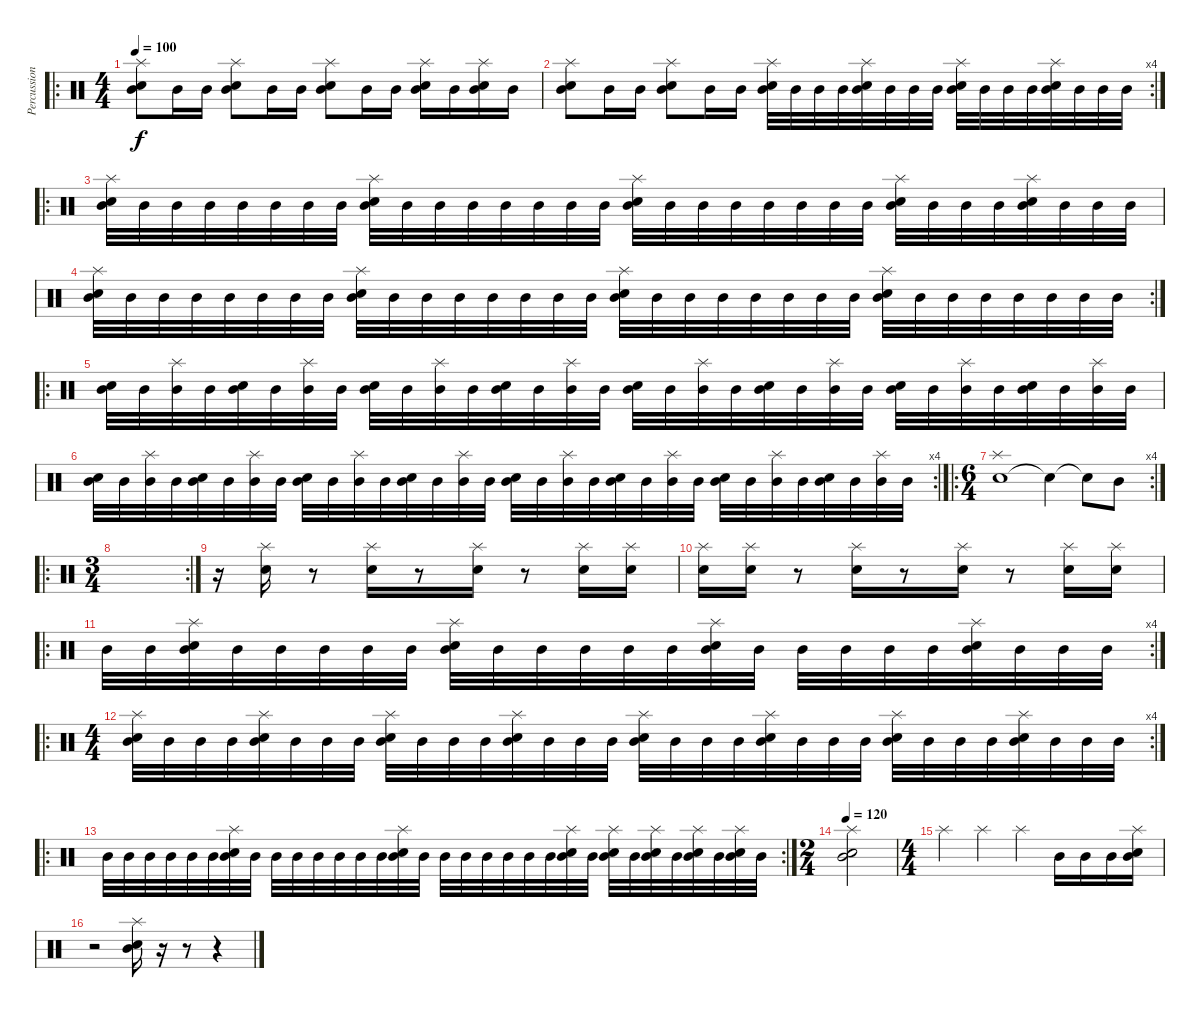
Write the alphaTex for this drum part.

\track ("Percussion" "Percussion") {instrument percussion}
\staff {score}
\articulation defaults
\ro
\ts (4 4)
\tempo 100
\clef neutral
\ks c
("Mid Tom (hit)" "Electric Snare (hit)" "Splash (hit)").8{dy f} "Mid Tom (hit)".16 "Mid Tom (hit)".16 ("Mid Tom (hit)" "Electric Snare (hit)" "Splash (hit)").8 "Mid Tom (hit)".16 "Mid Tom (hit)".16 ("Mid Tom (hit)" "Electric Snare (hit)" "Splash (hit)").8 "Mid Tom (hit)".16 "Mid Tom (hit)".16 ("Mid Tom (hit)" "Electric Snare (hit)" "Splash (hit)").16 "Mid Tom (hit)".16 ("Mid Tom (hit)" "Electric Snare (hit)" "Splash (hit)").16 "Mid Tom (hit)".16 |
\rc 4
("Mid Tom (hit)" "Electric Snare (hit)" "Splash (hit)").8 "Mid Tom (hit)".16 "Mid Tom (hit)".16 ("Mid Tom (hit)" "Electric Snare (hit)" "Splash (hit)").8 "Mid Tom (hit)".16 "Mid Tom (hit)".16 ("Mid Tom (hit)" "Electric Snare (hit)" "Splash (hit)").32 "Mid Tom (hit)".32 "Mid Tom (hit)".32 "Mid Tom (hit)".32 ("Mid Tom (hit)" "Electric Snare (hit)" "Splash (hit)").32 "Mid Tom (hit)".32 "Mid Tom (hit)".32 "Mid Tom (hit)".32 ("Mid Tom (hit)" "Electric Snare (hit)" "Splash (hit)").32 "Mid Tom (hit)".32 "Mid Tom (hit)".32 "Mid Tom (hit)".32 ("Mid Tom (hit)" "Electric Snare (hit)" "Splash (hit)").32 "Mid Tom (hit)".32 "Mid Tom (hit)".32 "Mid Tom (hit)".32 |
\ro
("Mid Tom (hit)" "Electric Snare (hit)" "Splash (hit)").32 "Mid Tom (hit)".32 "Mid Tom (hit)".32 "Mid Tom (hit)".32 "Mid Tom (hit)".32 "Mid Tom (hit)".32 "Mid Tom (hit)".32 "Mid Tom (hit)".32 ("Mid Tom (hit)" "Electric Snare (hit)" "Splash (hit)").32 "Mid Tom (hit)".32 "Mid Tom (hit)".32 "Mid Tom (hit)".32 "Mid Tom (hit)".32 "Mid Tom (hit)".32 "Mid Tom (hit)".32 "Mid Tom (hit)".32 ("Mid Tom (hit)" "Electric Snare (hit)" "Splash (hit)").32 "Mid Tom (hit)".32 "Mid Tom (hit)".32 "Mid Tom (hit)".32 "Mid Tom (hit)".32 "Mid Tom (hit)".32 "Mid Tom (hit)".32 "Mid Tom (hit)".32 ("Mid Tom (hit)" "Electric Snare (hit)" "Splash (hit)").32 "Mid Tom (hit)".32 "Mid Tom (hit)".32 "Mid Tom (hit)".32 ("Mid Tom (hit)" "Electric Snare (hit)" "Splash (hit)").32 "Mid Tom (hit)".32 "Mid Tom (hit)".32 "Mid Tom (hit)".32 |
\rc 2
("Mid Tom (hit)" "Electric Snare (hit)" "Splash (hit)").32 "Mid Tom (hit)".32 "Mid Tom (hit)".32 "Mid Tom (hit)".32 "Mid Tom (hit)".32 "Mid Tom (hit)".32 "Mid Tom (hit)".32 "Mid Tom (hit)".32 ("Mid Tom (hit)" "Electric Snare (hit)" "Splash (hit)").32 "Mid Tom (hit)".32 "Mid Tom (hit)".32 "Mid Tom (hit)".32 "Mid Tom (hit)".32 "Mid Tom (hit)".32 "Mid Tom (hit)".32 "Mid Tom (hit)".32 ("Mid Tom (hit)" "Electric Snare (hit)" "Splash (hit)").32 "Mid Tom (hit)".32 "Mid Tom (hit)".32 "Mid Tom (hit)".32 "Mid Tom (hit)".32 "Mid Tom (hit)".32 "Mid Tom (hit)".32 "Mid Tom (hit)".32 ("Mid Tom (hit)" "Electric Snare (hit)" "Splash (hit)").32 "Mid Tom (hit)".32 "Mid Tom (hit)".32 "Mid Tom (hit)".32 "Mid Tom (hit)".32 "Mid Tom (hit)".32 "Mid Tom (hit)".32 "Mid Tom (hit)".32 |
\ro
("Mid Tom (hit)" "Electric Snare (hit)").32 "Mid Tom (hit)".32 ("Mid Tom (hit)" "Splash (hit)").32 "Mid Tom (hit)".32 ("Mid Tom (hit)" "Electric Snare (hit)").32 "Mid Tom (hit)".32 ("Mid Tom (hit)" "Splash (hit)").32 "Mid Tom (hit)".32 ("Mid Tom (hit)" "Electric Snare (hit)").32 "Mid Tom (hit)".32 ("Mid Tom (hit)" "Splash (hit)").32 "Mid Tom (hit)".32 ("Mid Tom (hit)" "Electric Snare (hit)").32 "Mid Tom (hit)".32 ("Mid Tom (hit)" "Splash (hit)").32 "Mid Tom (hit)".32 ("Mid Tom (hit)" "Electric Snare (hit)").32 "Mid Tom (hit)".32 ("Mid Tom (hit)" "Splash (hit)").32 "Mid Tom (hit)".32 ("Mid Tom (hit)" "Electric Snare (hit)").32 "Mid Tom (hit)".32 ("Mid Tom (hit)" "Splash (hit)").32 "Mid Tom (hit)".32 ("Mid Tom (hit)" "Electric Snare (hit)").32 "Mid Tom (hit)".32 ("Mid Tom (hit)" "Splash (hit)").32 "Mid Tom (hit)".32 ("Mid Tom (hit)" "Electric Snare (hit)").32 "Mid Tom (hit)".32 ("Mid Tom (hit)" "Splash (hit)").32 "Mid Tom (hit)".32 |
\rc 4
("Mid Tom (hit)" "Electric Snare (hit)").32 "Mid Tom (hit)".32 ("Mid Tom (hit)" "Splash (hit)").32 "Mid Tom (hit)".32 ("Mid Tom (hit)" "Electric Snare (hit)").32 "Mid Tom (hit)".32 ("Mid Tom (hit)" "Splash (hit)").32 "Mid Tom (hit)".32 ("Mid Tom (hit)" "Electric Snare (hit)").32 "Mid Tom (hit)".32 ("Mid Tom (hit)" "Splash (hit)").32 "Mid Tom (hit)".32 ("Mid Tom (hit)" "Electric Snare (hit)").32 "Mid Tom (hit)".32 ("Mid Tom (hit)" "Splash (hit)").32 "Mid Tom (hit)".32 ("Mid Tom (hit)" "Electric Snare (hit)").32 "Mid Tom (hit)".32 ("Mid Tom (hit)" "Splash (hit)").32 "Mid Tom (hit)".32 ("Mid Tom (hit)" "Electric Snare (hit)").32 "Mid Tom (hit)".32 ("Mid Tom (hit)" "Splash (hit)").32 "Mid Tom (hit)".32 ("Mid Tom (hit)" "Electric Snare (hit)").32 "Mid Tom (hit)".32 ("Mid Tom (hit)" "Splash (hit)").32 "Mid Tom (hit)".32 ("Mid Tom (hit)" "Electric Snare (hit)").32 "Mid Tom (hit)".32 ("Mid Tom (hit)" "Splash (hit)").32 "Mid Tom (hit)".32 |
\ro
\rc 4
\ts (6 4)
("Electric Snare (hit)" "Splash (hit)").1 "Snare (hit)"{t}.4 "Snare (hit)"{t}.8 "Mid Tom (hit)".8 |
\ro
\rc 2
\ts (3 4)
|
r.16 ("Electric Snare (hit)" "Splash (hit)").16 r.8 ("Electric Snare (hit)" "Splash (hit)").16 r.8 ("Electric Snare (hit)" "Splash (hit)").16 r.8 ("Electric Snare (hit)" "Splash (hit)").16 ("Electric Snare (hit)" "Splash (hit)").16 |
("Electric Snare (hit)" "Splash (hit)").16 ("Electric Snare (hit)" "Splash (hit)").16 r.8 ("Electric Snare (hit)" "Splash (hit)").16 r.8 ("Electric Snare (hit)" "Splash (hit)").16 r.8 ("Electric Snare (hit)" "Splash (hit)").16 ("Electric Snare (hit)" "Splash (hit)").16 |
\ro
\rc 4 "Mid Tom (hit)".32 "Mid Tom (hit)".32
("Mid Tom (hit)" "Electric Snare (hit)" "Splash (hit)").32 "Mid Tom (hit)".32 "Mid Tom (hit)".32 "Mid Tom (hit)".32 "Mid Tom (hit)".32 "Mid Tom (hit)".32 ("Mid Tom (hit)" "Electric Snare (hit)" "Splash (hit)").32 "Mid Tom (hit)".32 "Mid Tom (hit)".32 "Mid Tom (hit)".32 "Mid Tom (hit)".32 "Mid Tom (hit)".32 ("Mid Tom (hit)" "Electric Snare (hit)" "Splash (hit)").32 "Mid Tom (hit)".32 "Mid Tom (hit)".32 "Mid Tom (hit)".32 "Mid Tom (hit)".32 "Mid Tom (hit)".32 ("Mid Tom (hit)" "Electric Snare (hit)" "Splash (hit)").32 "Mid Tom (hit)".32 "Mid Tom (hit)".32 "Mid Tom (hit)".32 |
\ro
\rc 4
\ts (4 4)
("Mid Tom (hit)" "Electric Snare (hit)" "Splash (hit)").32 "Mid Tom (hit)".32 "Mid Tom (hit)".32 "Mid Tom (hit)".32 ("Mid Tom (hit)" "Electric Snare (hit)" "Splash (hit)").32 "Mid Tom (hit)".32 "Mid Tom (hit)".32 "Mid Tom (hit)".32 ("Mid Tom (hit)" "Electric Snare (hit)" "Splash (hit)").32 "Mid Tom (hit)".32 "Mid Tom (hit)".32 "Mid Tom (hit)".32 ("Mid Tom (hit)" "Electric Snare (hit)" "Splash (hit)").32 "Mid Tom (hit)".32 "Mid Tom (hit)".32 "Mid Tom (hit)".32 ("Mid Tom (hit)" "Electric Snare (hit)" "Splash (hit)").32 "Mid Tom (hit)".32 "Mid Tom (hit)".32 "Mid Tom (hit)".32 ("Mid Tom (hit)" "Electric Snare (hit)" "Splash (hit)").32 "Mid Tom (hit)".32 "Mid Tom (hit)".32 "Mid Tom (hit)".32 ("Mid Tom (hit)" "Electric Snare (hit)" "Splash (hit)").32 "Mid Tom (hit)".32 "Mid Tom (hit)".32 "Mid Tom (hit)".32 ("Mid Tom (hit)" "Electric Snare (hit)" "Splash (hit)").32 "Mid Tom (hit)".32 "Mid Tom (hit)".32 "Mid Tom (hit)".32 |
\ro
\rc 2 "Mid Tom (hit)".32 "Mid Tom (hit)".32 "Mid Tom (hit)".32 "Mid Tom (hit)".32 "Mid Tom (hit)".32 "Mid Tom (hit)".32
("Mid Tom (hit)" "Electric Snare (hit)" "Splash (hit)").32 "Mid Tom (hit)".32 "Mid Tom (hit)".32 "Mid Tom (hit)".32 "Mid Tom (hit)".32 "Mid Tom (hit)".32 "Mid Tom (hit)".32 "Mid Tom (hit)".32 ("Mid Tom (hit)" "Electric Snare (hit)" "Splash (hit)").32 "Mid Tom (hit)".32 "Mid Tom (hit)".32 "Mid Tom (hit)".32 "Mid Tom (hit)".32 "Mid Tom (hit)".32 "Mid Tom (hit)".32 "Mid Tom (hit)".32 ("Mid Tom (hit)" "Electric Snare (hit)" "Splash (hit)").32 "Mid Tom (hit)".32 ("Mid Tom (hit)" "Electric Snare (hit)" "Splash (hit)").32 "Mid Tom (hit)".32 ("Mid Tom (hit)" "Electric Snare (hit)" "Splash (hit)").32 "Mid Tom (hit)".32 ("Mid Tom (hit)" "Electric Snare (hit)" "Splash (hit)").32 "Mid Tom (hit)".32 ("Mid Tom (hit)" "Electric Snare (hit)" "Splash (hit)").32 "Mid Tom (hit)".32 |
\ts (2 4)
\tempo 120
("Mid Tom (hit)" "Electric Snare (hit)" "Splash (hit)").2 |
\ts (4 4)
"Splash (hit)".4 "Splash (hit)".4 "Splash (hit)".4 "Mid Tom (hit)".16 "Mid Tom (hit)".16 "Mid Tom (hit)".16 ("Mid Tom (hit)" "Electric Snare (hit)" "Splash (hit)").16 |
r.2 ("Mid Tom (hit)" "Electric Snare (hit)" "Splash (hit)").16 r.16 r.8 r.4
